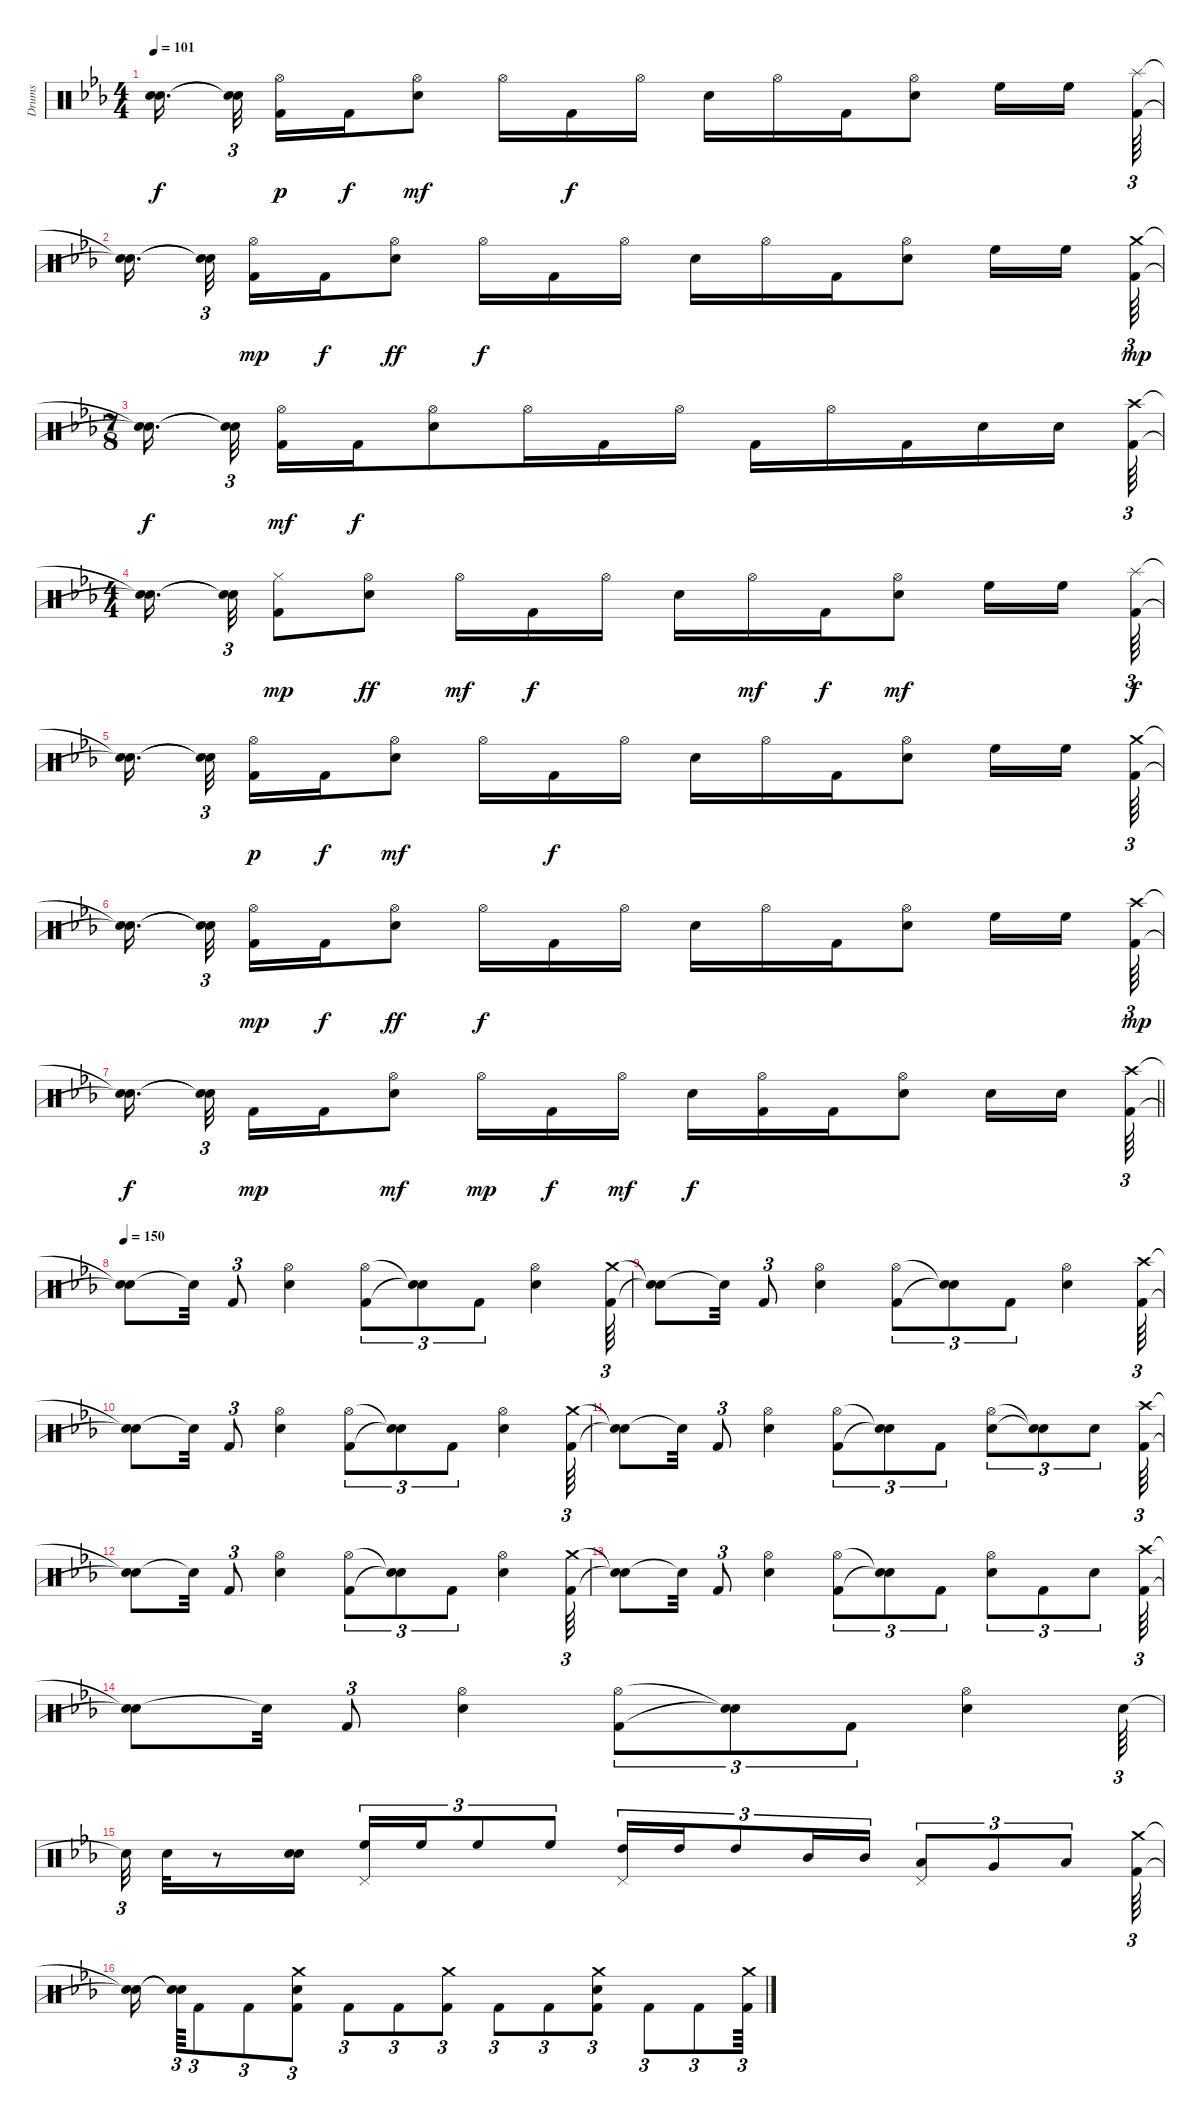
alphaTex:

\track ("Drums" "Drums") {instrument percussion}
\staff {score}
\articulation defaults
\ts (4 4)
\tempo 101
\clef neutral
\ks cminor
("Snare (hit)"{t} "Snare (hit)"{t}).16{d dy f beam splitsecondary} ("Snare (hit)"{t} "Snare (hit)"{t}).32{tu (3 2) beam splitsecondary} ("Kick (hit) 2" "Hi-Hat (open)").16{dy p} "Kick (hit) 2".16{dy f} ("Electric Snare (hit)" "Hi-Hat (open)").8{dy mf} "Hi-Hat (open)".16 "Kick (hit) 2".16{dy f} "Hi-Hat (open)".16 "Electric Snare (hit)".16 "Hi-Hat (open)".16 "Kick (hit) 2".16 ("Electric Snare (hit)" "Hi-Hat (open)").8 "High Floor Tom (hit)".16 "High Floor Tom (hit)".16{beam splitsecondary} ("Kick (hit) 2" "Splash (hit)").64{tu (3 2)} |
("Snare (hit)"{t} "Snare (hit)"{t}).16{d beam splitsecondary} ("Snare (hit)"{t} "Snare (hit)"{t}).32{tu (3 2) beam splitsecondary} ("Kick (hit) 2" "Hi-Hat (open)").16{dy mp} "Kick (hit) 2".16{dy f} ("Electric Snare (hit)" "Hi-Hat (open)").8{dy ff} "Hi-Hat (open)".16{dy f} "Kick (hit) 2".16 "Hi-Hat (open)".16 "Electric Snare (hit)".16 "Hi-Hat (open)".16 "Kick (hit) 2".16 ("Electric Snare (hit)" "Hi-Hat (open)").8 "High Floor Tom (hit)".16 "High Floor Tom (hit)".16{beam splitsecondary} ("Kick (hit) 2" "Crash medium (hit)").64{tu (3 2) dy mp} |
\ts (7 8)
("Snare (hit)"{t} "Snare (hit)"{t}).16{d dy f beam splitsecondary} ("Snare (hit)"{t} "Snare (hit)"{t}).32{tu (3 2)} ("Kick (hit) 2" "Hi-Hat (open)").16{dy mf} "Kick (hit) 2".16{dy f} ("Electric Snare (hit)" "Hi-Hat (open)").8 "Hi-Hat (open)".16 "Kick (hit) 2".16 "Hi-Hat (open)".16 "Kick (hit) 2".16 "Hi-Hat (open)".16 "Kick (hit) 2".16 "Electric Snare (hit)".16 "Electric Snare (hit)".16 ("Kick (hit) 2" "Crash high (hit)").64{tu (3 2)} |
\ts (4 4)
("Snare (hit)"{t} "Snare (hit)"{t}).16{d beam splitsecondary} ("Snare (hit)"{t} "Snare (hit)"{t}).32{tu (3 2)} ("Kick (hit) 2" "Hi-Hat (closed)").8{dy mp} ("Electric Snare (hit)" "Hi-Hat (open)").8{dy ff} "Hi-Hat (open)".16{dy mf} "Kick (hit) 2".16{dy f} "Hi-Hat (open)".16 "Electric Snare (hit)".16 "Hi-Hat (open)".16{dy mf} "Kick (hit) 2".16{dy f} ("Electric Snare (hit)" "Hi-Hat (open)").8{dy mf} "High Floor Tom (hit)".16 "High Floor Tom (hit)".16{beam splitsecondary} ("Kick (hit) 2" "Splash (hit)").64{tu (3 2) dy f} |
("Snare (hit)"{t} "Snare (hit)"{t}).16{d beam splitsecondary} ("Snare (hit)"{t} "Snare (hit)"{t}).32{tu (3 2) beam splitsecondary} ("Kick (hit) 2" "Hi-Hat (open)").16{dy p} "Kick (hit) 2".16{dy f} ("Electric Snare (hit)" "Hi-Hat (open)").8{dy mf} "Hi-Hat (open)".16 "Kick (hit) 2".16{dy f} "Hi-Hat (open)".16 "Electric Snare (hit)".16 "Hi-Hat (open)".16 "Kick (hit) 2".16 ("Electric Snare (hit)" "Hi-Hat (open)").8 "High Floor Tom (hit)".16 "High Floor Tom (hit)".16{beam splitsecondary} ("Kick (hit) 2" "Crash medium (hit)").64{tu (3 2)} |
("Snare (hit)"{t} "Snare (hit)"{t}).16{d beam splitsecondary} ("Snare (hit)"{t} "Snare (hit)"{t}).32{tu (3 2) beam splitsecondary} ("Kick (hit) 2" "Hi-Hat (open)").16{dy mp} "Kick (hit) 2".16{dy f} ("Electric Snare (hit)" "Hi-Hat (open)").8{dy ff} "Hi-Hat (open)".16{dy f} "Kick (hit) 2".16 "Hi-Hat (open)".16 "Electric Snare (hit)".16 "Hi-Hat (open)".16 "Kick (hit) 2".16 ("Electric Snare (hit)" "Hi-Hat (open)").8 "High Floor Tom (hit)".16 "High Floor Tom (hit)".16{beam splitsecondary} ("Kick (hit) 2" "Crash high (hit)").64{tu (3 2) dy mp} |
\barLineRight lightlight
("Snare (hit)"{t} "Snare (hit)"{t}).16{d dy f beam splitsecondary} ("Snare (hit)"{t} "Snare (hit)"{t}).32{tu (3 2) beam splitsecondary} "Kick (hit) 2".16{dy mp} "Kick (hit) 2".16 ("Electric Snare (hit)" "Hi-Hat (open)").8{dy mf} "Hi-Hat (open)".16{dy mp} "Kick (hit) 2".16{dy f} "Hi-Hat (open)".16{dy mf} "Electric Snare (hit)".16{dy f} ("Kick (hit) 2" "Hi-Hat (open)").16 "Kick (hit) 2".16 ("Electric Snare (hit)" "Hi-Hat (open)").8 "Electric Snare (hit)".16 "Electric Snare (hit)".16{beam splitsecondary} ("Crash high (hit)" "Kick (hit) 2").64{tu (3 2)} |
\tempo 150
("Snare (hit)"{t} "Snare (hit)"{t}).8 "Snare (hit)"{t}.32 "Kick (hit) 2".8{tu (3 2)} ("Hi-Hat (open)" "Electric Snare (hit)").4 ("Hi-Hat (open)" "Kick (hit) 2").8{tu (3 2)} ("Snare (hit)"{t} "Snare (hit)"{t}).8{tu (3 2)} "Kick (hit) 2".8{tu (3 2)} ("Hi-Hat (open)" "Electric Snare (hit)").4 ("Crash medium (hit)" "Kick (hit) 2").64{tu (3 2)} |
("Snare (hit)"{t} "Snare (hit)"{t}).8 "Snare (hit)"{t}.32 "Kick (hit) 2".8{tu (3 2)} ("Hi-Hat (open)" "Electric Snare (hit)").4 ("Hi-Hat (open)" "Kick (hit) 2").8{tu (3 2)} ("Snare (hit)"{t} "Snare (hit)"{t}).8{tu (3 2)} "Kick (hit) 2".8{tu (3 2)} ("Hi-Hat (open)" "Electric Snare (hit)").4 ("Crash high (hit)" "Kick (hit) 2").64{tu (3 2)} |
("Snare (hit)"{t} "Snare (hit)"{t}).8 "Snare (hit)"{t}.32 "Kick (hit) 2".8{tu (3 2)} ("Hi-Hat (open)" "Electric Snare (hit)").4 ("Hi-Hat (open)" "Kick (hit) 2").8{tu (3 2)} ("Snare (hit)"{t} "Snare (hit)"{t}).8{tu (3 2)} "Kick (hit) 2".8{tu (3 2)} ("Hi-Hat (open)" "Electric Snare (hit)").4 ("Crash medium (hit)" "Kick (hit) 2").64{tu (3 2)} |
("Snare (hit)"{t} "Snare (hit)"{t}).8 "Snare (hit)"{t}.32 "Kick (hit) 2".8{tu (3 2)} ("Hi-Hat (open)" "Electric Snare (hit)").4 ("Hi-Hat (open)" "Kick (hit) 2").8{tu (3 2)} ("Snare (hit)"{t} "Snare (hit)"{t}).8{tu (3 2)} "Kick (hit) 2".8{tu (3 2)} ("Hi-Hat (open)" "Electric Snare (hit)").8{tu (3 2)} ("Snare (hit)"{t} "Snare (hit)"{t}).8{tu (3 2)} "Electric Snare (hit)".8{tu (3 2)} ("Crash high (hit)" "Kick (hit) 2").64{tu (3 2)} |
("Snare (hit)"{t} "Snare (hit)"{t}).8 "Snare (hit)"{t}.32 "Kick (hit) 2".8{tu (3 2)} ("Hi-Hat (open)" "Electric Snare (hit)").4 ("Hi-Hat (open)" "Kick (hit) 2").8{tu (3 2)} ("Snare (hit)"{t} "Snare (hit)"{t}).8{tu (3 2)} "Kick (hit) 2".8{tu (3 2)} ("Hi-Hat (open)" "Electric Snare (hit)").4 ("Crash medium (hit)" "Kick (hit) 2").64{tu (3 2)} |
("Snare (hit)"{t} "Snare (hit)"{t}).8 "Snare (hit)"{t}.32 "Kick (hit) 2".8{tu (3 2)} ("Hi-Hat (open)" "Electric Snare (hit)").4 ("Hi-Hat (open)" "Kick (hit) 2").8{tu (3 2)} ("Snare (hit)"{t} "Snare (hit)"{t}).8{tu (3 2)} "Kick (hit) 2".8{tu (3 2)} ("Hi-Hat (open)" "Electric Snare (hit)").8{tu (3 2)} "Kick (hit) 2".8{tu (3 2)} "Electric Snare (hit)".8{tu (3 2)} ("Kick (hit) 2" "Crash high (hit)").64{tu (3 2)} |
("Snare (hit)"{t} "Snare (hit)"{t}).8 "Snare (hit)"{t}.32 "Kick (hit) 2".8{tu (3 2)} ("Hi-Hat (open)" "Electric Snare (hit)").4 ("Hi-Hat (open)" "Kick (hit) 2").8{tu (3 2)} ("Snare (hit)"{t} "Snare (hit)"{t}).8{tu (3 2)} "Kick (hit) 2".8{tu (3 2)} ("Hi-Hat (open)" "Electric Snare (hit)").4 "Electric Snare (hit)".64{tu (3 2)} |
"Snare (hit)"{t}.32{tu (3 2)} "Electric Snare (hit)".32 r.8 ("Electric Snare (hit)" "Electric Snare (hit)").16 ("High Floor Tom (hit)" "Pedal Hi-Hat (hit)").16{tu (3 2)} "High Floor Tom (hit)".16{tu (3 2)} "High Floor Tom (hit)".8{tu (3 2)} "High Floor Tom (hit)".8{tu (3 2)} ("Pedal Hi-Hat (hit)" "High Tom (hit)").16{tu (3 2)} "High Tom (hit)".16{tu (3 2)} "High Tom (hit)".8{tu (3 2)} "Mid Tom (hit)".16{tu (3 2)} "Mid Tom (hit)".16{tu (3 2)} ("Pedal Hi-Hat (hit)" "Low Tom (hit)").8{tu (3 2)} "Very Low Tom (hit)".8{tu (3 2)} "Low Floor Tom (hit)".8{tu (3 2)} ("Kick (hit) 2" "Crash medium (hit)").64{tu (3 2)} |
("Snare (hit)"{t} "Snare (hit)"{t}).16{beam splitsecondary} ("Snare (hit)"{t} "Snare (hit)"{t}).64{tu (3 2)} "Kick (hit) 2".8{tu (3 2)} "Kick (hit) 2".8{tu (3 2)} ("Electric Snare (hit)" "Kick (hit) 2" "Crash medium (hit)").8{tu (3 2)} "Kick (hit) 2".8{tu (3 2)} "Kick (hit) 2".8{tu (3 2)} ("Kick (hit) 2" "Crash medium (hit)").8{tu (3 2)} "Kick (hit) 2".8{tu (3 2)} "Kick (hit) 2".8{tu (3 2)} ("Kick (hit) 2" "Crash medium (hit)" "Electric Snare (hit)").8{tu (3 2)} "Kick (hit) 2".8{tu (3 2)} "Kick (hit) 2".8{tu (3 2)} ("Crash medium (hit)" "Kick (hit) 2").64{tu (3 2)}
